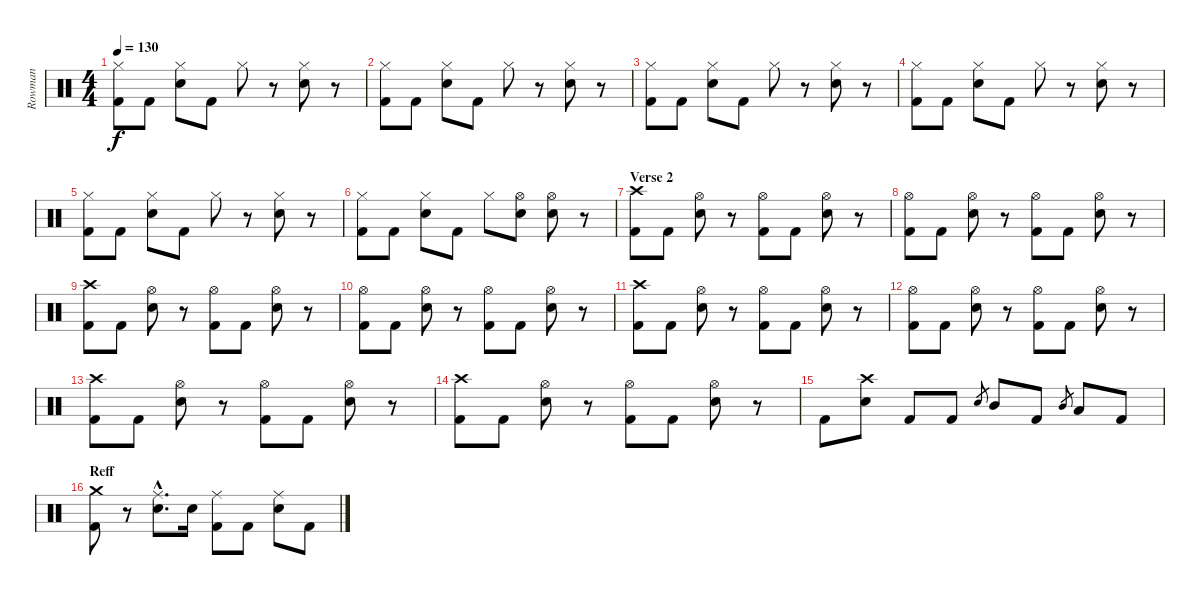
\track ("Rowman" "Rowman") {instrument percussion}
\staff {score}
\articulation defaults
\ts (4 4)
\tempo 130
\clef neutral
\ks c
("Kick (hit) 2" "Hi-Hat (closed)").8{dy f} "Kick (hit) 2".8 ("Electric Snare (hit)" "Hi-Hat (closed)").8 "Kick (hit) 2".8 "Hi-Hat (closed)".8 r.8 ("Electric Snare (hit)" "Hi-Hat (closed)").8 r.8 |
("Kick (hit) 2" "Hi-Hat (closed)").8 "Kick (hit) 2".8 ("Electric Snare (hit)" "Hi-Hat (closed)").8 "Kick (hit) 2".8 "Hi-Hat (closed)".8 r.8 ("Electric Snare (hit)" "Hi-Hat (closed)").8 r.8 |
("Kick (hit) 2" "Hi-Hat (closed)").8 "Kick (hit) 2".8 ("Electric Snare (hit)" "Hi-Hat (closed)").8 "Kick (hit) 2".8 "Hi-Hat (closed)".8 r.8 ("Electric Snare (hit)" "Hi-Hat (closed)").8 r.8 |
("Kick (hit) 2" "Hi-Hat (closed)").8 "Kick (hit) 2".8 ("Electric Snare (hit)" "Hi-Hat (closed)").8 "Kick (hit) 2".8 "Hi-Hat (closed)".8 r.8 ("Electric Snare (hit)" "Hi-Hat (closed)").8 r.8 |
("Kick (hit) 2" "Hi-Hat (closed)").8 "Kick (hit) 2".8 ("Electric Snare (hit)" "Hi-Hat (closed)").8 "Kick (hit) 2".8 "Hi-Hat (closed)".8 r.8 ("Electric Snare (hit)" "Hi-Hat (closed)").8 r.8 |
("Kick (hit) 2" "Hi-Hat (closed)").8 "Kick (hit) 2".8 ("Electric Snare (hit)" "Hi-Hat (closed)").8 "Kick (hit) 2".8 "Hi-Hat (closed)".8 ("Electric Snare (hit)" "Hi-Hat (open)").8 ("Electric Snare (hit)" "Hi-Hat (open)").8 r.8 |
\section ("" "Verse 2")
("Kick (hit) 2" "Crash high (hit)").8 "Kick (hit) 2".8 ("Electric Snare (hit)" "Hi-Hat (open)").8 r.8 ("Kick (hit) 2" "Hi-Hat (open)").8 "Kick (hit) 2".8 ("Electric Snare (hit)" "Hi-Hat (open)").8 r.8 |
("Kick (hit) 2" "Hi-Hat (open)").8 "Kick (hit) 2".8 ("Electric Snare (hit)" "Hi-Hat (open)").8 r.8 ("Kick (hit) 2" "Hi-Hat (open)").8 "Kick (hit) 2".8 ("Electric Snare (hit)" "Hi-Hat (open)").8 r.8 |
("Kick (hit) 2" "Crash high (hit)").8 "Kick (hit) 2".8 ("Electric Snare (hit)" "Hi-Hat (open)").8 r.8 ("Kick (hit) 2" "Hi-Hat (open)").8 "Kick (hit) 2".8 ("Electric Snare (hit)" "Hi-Hat (open)").8 r.8 |
("Kick (hit) 2" "Hi-Hat (open)").8 "Kick (hit) 2".8 ("Electric Snare (hit)" "Hi-Hat (open)").8 r.8 ("Kick (hit) 2" "Hi-Hat (open)").8 "Kick (hit) 2".8 ("Electric Snare (hit)" "Hi-Hat (open)").8 r.8 |
("Kick (hit) 2" "Crash high (hit)").8 "Kick (hit) 2".8 ("Electric Snare (hit)" "Hi-Hat (open)").8 r.8 ("Kick (hit) 2" "Hi-Hat (open)").8 "Kick (hit) 2".8 ("Electric Snare (hit)" "Hi-Hat (open)").8 r.8 |
("Kick (hit) 2" "Hi-Hat (open)").8 "Kick (hit) 2".8 ("Electric Snare (hit)" "Hi-Hat (open)").8 r.8 ("Kick (hit) 2" "Hi-Hat (open)").8 "Kick (hit) 2".8 ("Electric Snare (hit)" "Hi-Hat (open)").8 r.8 |
("Kick (hit) 2" "Crash high (hit)").8 "Kick (hit) 2".8 ("Electric Snare (hit)" "Hi-Hat (open)").8 r.8 ("Kick (hit) 2" "Hi-Hat (open)").8 "Kick (hit) 2".8 ("Electric Snare (hit)" "Hi-Hat (open)").8 r.8 |
("Kick (hit) 2" "Crash high (hit)").8 "Kick (hit) 2".8 ("Electric Snare (hit)" "Hi-Hat (open)").8 r.8 ("Kick (hit) 2" "Hi-Hat (open)").8 "Kick (hit) 2".8 ("Electric Snare (hit)" "Hi-Hat (open)").8 r.8 |
"Kick (hit) 2".8 ("Electric Snare (hit)" "Crash high (hit)").8 "Kick (hit) 2".8 "Kick (hit) 2".8 "Electric Snare (hit)".8{gr} "Mid Tom (hit)".8 "Kick (hit) 2".8 "Mid Tom (hit)".8{gr} "Low Tom (hit)".8 "Kick (hit) 2".8 |
\section ("" "Reff")
("Kick (hit) 2" "Crash medium (hit)").8 r.8 ("Electric Snare (hit)"{hac} "Ride (middle)"{hac}).8{d} "Electric Snare (hit)".16 ("Kick (hit) 2" "Ride (middle)").8 "Kick (hit) 2".8 ("Electric Snare (hit)" "Ride (middle)").8 "Kick (hit) 2".8
